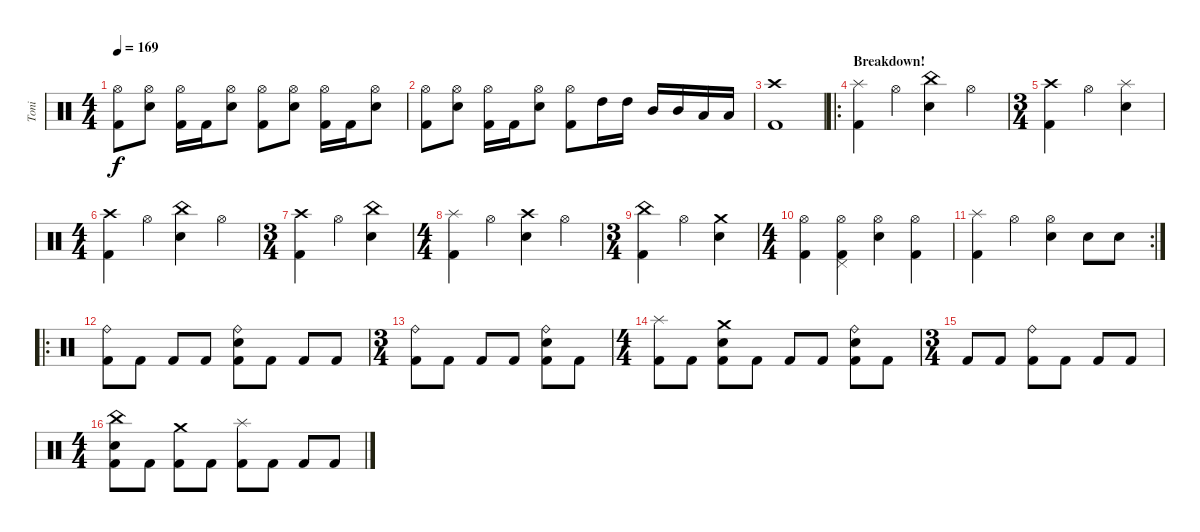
\track ("Toni" "Toni") {instrument percussion}
\staff {score}
\articulation defaults
\ts (4 4)
\tempo 169
\clef neutral
\ks c
("Hi-Hat (open)" "Kick (hit) 2").8{dy f} ("Hi-Hat (open)" "Electric Snare (hit)").8 ("Hi-Hat (open)" "Kick (hit) 2").16 "Kick (hit) 2".16 ("Hi-Hat (open)" "Electric Snare (hit)").8 ("Hi-Hat (open)" "Kick (hit) 2").8 ("Hi-Hat (open)" "Electric Snare (hit)").8 ("Hi-Hat (open)" "Kick (hit) 2").16 "Kick (hit) 2".16 ("Hi-Hat (open)" "Electric Snare (hit)").8 |
("Hi-Hat (open)" "Kick (hit) 2").8 ("Hi-Hat (open)" "Electric Snare (hit)").8 ("Hi-Hat (open)" "Kick (hit) 2").16 "Kick (hit) 2".16 ("Hi-Hat (open)" "Electric Snare (hit)").8 ("Hi-Hat (open)" "Kick (hit) 2").8 "High Tom (hit)".16 "High Tom (hit)".16 "Mid Tom (hit)".16 "Mid Tom (hit)".16 "Low Tom (hit)".16 "Low Tom (hit)".16 |
("Crash high (hit)" "Kick (hit) 2").1 |
\ro
\section ("" "Breakdown!")
("Splash (hit)" "Kick (hit) 2").4 "Hi-Hat (open)".4 ("China (hit)" "Electric Snare (hit)").4 "Hi-Hat (open)".4 |
\ts (3 4)
("Crash high (hit)" "Kick (hit) 2").4 "Hi-Hat (open)".4 ("Splash (hit)" "Electric Snare (hit)").4 |
\ts (4 4)
("Crash high (hit)" "Kick (hit) 2").4 "Hi-Hat (open)".4 ("China (hit)" "Electric Snare (hit)").4 "Hi-Hat (open)".4 |
\ts (3 4)
("Crash high (hit)" "Kick (hit) 2").4 "Hi-Hat (open)".4 ("China (hit)" "Electric Snare (hit)").4 |
\ts (4 4)
("Splash (hit)" "Kick (hit) 2").4 "Hi-Hat (open)".4 ("Crash high (hit)" "Electric Snare (hit)").4 "Hi-Hat (open)".4 |
\ts (3 4)
("China (hit)" "Kick (hit) 2").4 "Hi-Hat (open)".4 ("Crash medium (hit)" "Electric Snare (hit)").4 |
\ts (4 4)
("Hi-Hat (open)" "Kick (hit) 2").4 ("Hi-Hat (open)" "Pedal Hi-Hat (hit)" "Kick (hit) 2").4 ("Hi-Hat (open)" "Electric Snare (hit)").4 ("Hi-Hat (open)" "Kick (hit) 2").4 |
\rc 2
("Splash (hit)" "Kick (hit) 2").4 "Hi-Hat (open)".4 ("Hi-Hat (open)" "Electric Snare (hit)").4 "Electric Snare (hit)".8 "Electric Snare (hit)".8 |
\ro
("Ride (bell)" "Kick (hit) 2").8 "Kick (hit) 2".8 "Kick (hit) 2".8 "Kick (hit) 2".8 ("Ride (bell)" "Electric Snare (hit)" "Kick (hit) 2").8 "Kick (hit) 2".8 "Kick (hit) 2".8 "Kick (hit) 2".8 |
\ts (3 4)
("Ride (bell)" "Kick (hit) 2").8 "Kick (hit) 2".8 "Kick (hit) 2".8 "Kick (hit) 2".8 ("Ride (bell)" "Electric Snare (hit)" "Kick (hit) 2").8 "Kick (hit) 2".8 |
\ts (4 4)
("Splash (hit)" "Kick (hit) 2").8 "Kick (hit) 2".8 ("Crash medium (hit)" "Electric Snare (hit)" "Kick (hit) 2").8 "Kick (hit) 2".8 "Kick (hit) 2".8 "Kick (hit) 2".8 ("Ride (bell)" "Electric Snare (hit)" "Kick (hit) 2").8 "Kick (hit) 2".8 |
\ts (3 4)
"Kick (hit) 2".8 "Kick (hit) 2".8 ("Ride (bell)" "Kick (hit) 2").8 "Kick (hit) 2".8 "Kick (hit) 2".8 "Kick (hit) 2".8 |
\ts (4 4)
("China (hit)" "Electric Snare (hit)" "Kick (hit) 2").8 "Kick (hit) 2".8 ("Crash medium (hit)" "Kick (hit) 2").8 "Kick (hit) 2".8 ("Splash (hit)" "Kick (hit) 2").8 "Kick (hit) 2".8 "Kick (hit) 2".8 "Kick (hit) 2".8
